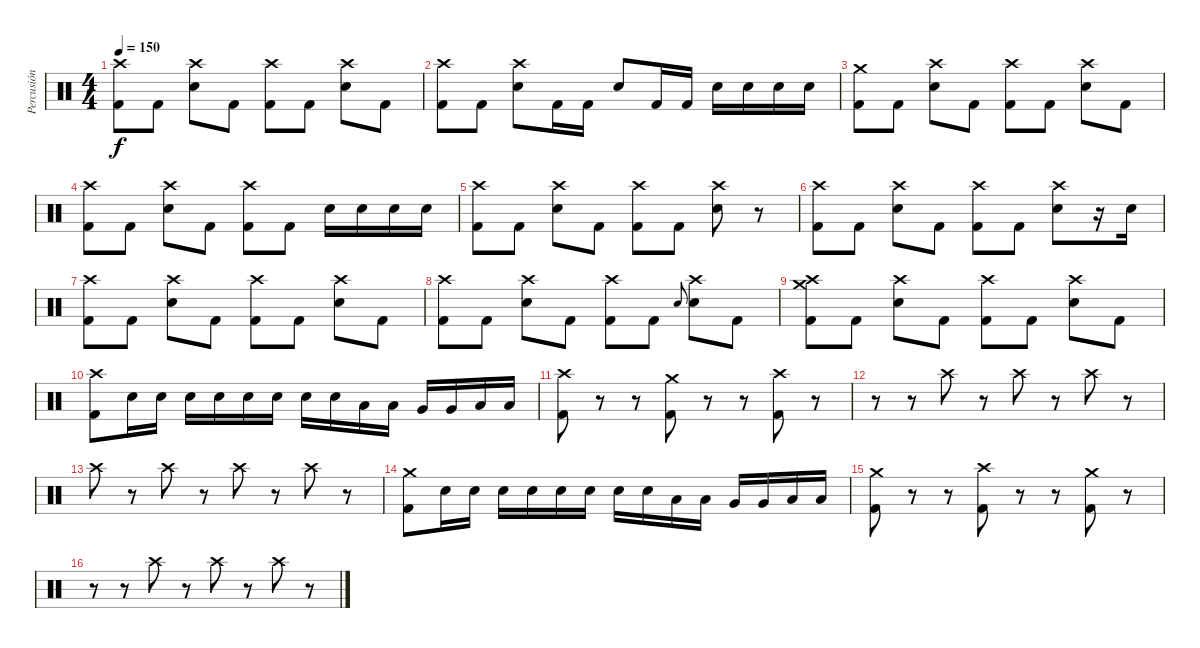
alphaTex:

\track ("Percusión" "Percusión") {instrument percussion}
\staff {score}
\articulation defaults
\ts (4 4)
\tempo 150
\clef neutral
\ks c
("Kick (hit) 2" "Crash high (hit)").8{dy f} "Kick (hit) 2".8 ("Electric Snare (hit)" "Crash high (hit)").8 "Kick (hit) 2".8 ("Kick (hit) 2" "Crash high (hit)").8 "Kick (hit) 2".8 ("Electric Snare (hit)" "Crash high (hit)").8 "Kick (hit) 2".8 |
("Kick (hit) 2" "Crash high (hit)").8 "Kick (hit) 2".8 ("Electric Snare (hit)" "Crash high (hit)").8 "Kick (hit) 2".16 "Kick (hit) 2".16 "Electric Snare (hit)".8 "Kick (hit) 2".16 "Kick (hit) 2".16 "Electric Snare (hit)".16 "Electric Snare (hit)".16 "Electric Snare (hit)".16 "Electric Snare (hit)".16 |
("Kick (hit) 2" "Crash medium (hit)").8 "Kick (hit) 2".8 ("Electric Snare (hit)" "Crash high (hit)").8 "Kick (hit) 2".8 ("Kick (hit) 2" "Crash high (hit)").8 "Kick (hit) 2".8 ("Electric Snare (hit)" "Crash high (hit)").8 "Kick (hit) 2".8 |
("Kick (hit) 2" "Crash high (hit)").8 "Kick (hit) 2".8 ("Electric Snare (hit)" "Crash high (hit)").8 "Kick (hit) 2".8 ("Kick (hit) 2" "Crash high (hit)").8 "Kick (hit) 2".8 "Electric Snare (hit)".16 "Electric Snare (hit)".16 "Electric Snare (hit)".16 "Electric Snare (hit)".16 |
("Kick (hit) 2" "Crash high (hit)").8 "Kick (hit) 2".8 ("Electric Snare (hit)" "Crash high (hit)").8 "Kick (hit) 2".8 ("Kick (hit) 2" "Crash high (hit)").8 "Kick (hit) 2".8 ("Electric Snare (hit)" "Crash high (hit)").8 r.8 |
("Kick (hit) 2" "Crash high (hit)").8 "Kick (hit) 2".8 ("Electric Snare (hit)" "Crash high (hit)").8 "Kick (hit) 2".8 ("Kick (hit) 2" "Crash high (hit)").8 "Kick (hit) 2".8 ("Electric Snare (hit)" "Crash high (hit)").8 r.16 "Electric Snare (hit)".16 |
("Kick (hit) 2" "Crash high (hit)").8 "Kick (hit) 2".8 ("Electric Snare (hit)" "Crash high (hit)").8 "Kick (hit) 2".8 ("Kick (hit) 2" "Crash high (hit)").8 "Kick (hit) 2".8 ("Electric Snare (hit)" "Crash high (hit)").8 "Kick (hit) 2".8 |
("Kick (hit) 2" "Crash high (hit)").8 "Kick (hit) 2".8 ("Electric Snare (hit)" "Crash high (hit)").8 "Kick (hit) 2".8 ("Kick (hit) 2" "Crash high (hit)").8 "Kick (hit) 2".8 "Electric Snare (hit)".8{gr onbeat} ("Electric Snare (hit)" "Crash high (hit)").8 "Kick (hit) 2".8 |
("Kick (hit) 2" "Crash medium (hit)" "Crash high (hit)").8 "Kick (hit) 2".8 ("Electric Snare (hit)" "Crash high (hit)").8 "Kick (hit) 2".8 ("Kick (hit) 2" "Crash high (hit)").8 "Kick (hit) 2".8 ("Electric Snare (hit)" "Crash high (hit)").8 "Kick (hit) 2".8 |
("Kick (hit) 2" "Crash high (hit)").8 "Electric Snare (hit)".16 "Electric Snare (hit)".16 "Electric Snare (hit)".16 "Electric Snare (hit)".16 "Electric Snare (hit)".16 "Electric Snare (hit)".16 "Electric Snare (hit)".16 "Electric Snare (hit)".16 "Low Tom (hit)".16 "Low Tom (hit)".16 "Very Low Tom (hit)".16 "Very Low Tom (hit)".16 "Low Floor Tom (hit)".16 "Low Floor Tom (hit)".16 |
("Kick (hit) 2" "Crash high (hit)").8 r.8 r.8 ("Kick (hit) 2" "Crash medium (hit)").8 r.8 r.8 ("Kick (hit) 2" "Crash high (hit)").8 r.8 |
r.8 r.8 "Crash high (hit)".8 r.8 "Crash high (hit)".8 r.8 "Crash high (hit)".8 r.8 |
"Crash high (hit)".8 r.8 "Crash high (hit)".8 r.8 "Crash high (hit)".8 r.8 "Crash high (hit)".8 r.8 |
("Kick (hit) 2" "Crash medium (hit)").8 "Electric Snare (hit)".16 "Electric Snare (hit)".16 "Electric Snare (hit)".16 "Electric Snare (hit)".16 "Electric Snare (hit)".16 "Electric Snare (hit)".16 "Electric Snare (hit)".16 "Electric Snare (hit)".16 "Low Tom (hit)".16 "Low Tom (hit)".16 "Very Low Tom (hit)".16 "Very Low Tom (hit)".16 "Low Floor Tom (hit)".16 "Low Floor Tom (hit)".16 |
("Kick (hit) 2" "Crash medium (hit)").8 r.8 r.8 ("Kick (hit) 2" "Crash high (hit)").8 r.8 r.8 ("Kick (hit) 2" "Crash medium (hit)").8 r.8 |
r.8 r.8 "Crash high (hit)".8 r.8 "Crash high (hit)".8 r.8 "Crash high (hit)".8 r.8
